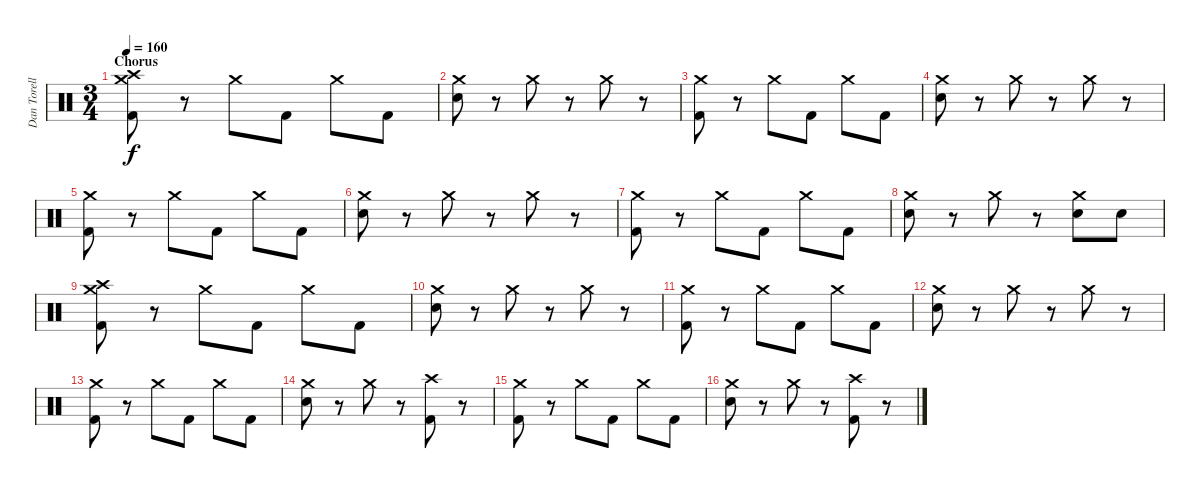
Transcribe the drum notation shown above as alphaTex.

\track ("Dan Torelli - Drums" "Dan Torell") {instrument percussion}
\staff {score}
\articulation defaults
\ts (3 4)
\section ("" "Chorus")
\tempo 160
\clef neutral
\ks c
("Crash high (hit)" "Crash medium (hit)" "Kick (hit) 2").8{dy f} r.8 "Crash medium (hit)".8 "Kick (hit) 2".8 "Crash medium (hit)".8 "Kick (hit) 2".8 |
("Crash medium (hit)" "Electric Snare (hit)").8 r.8 "Crash medium (hit)".8 r.8 "Crash medium (hit)".8 r.8 |
("Crash medium (hit)" "Kick (hit) 2").8 r.8 "Crash medium (hit)".8 "Kick (hit) 2".8 "Crash medium (hit)".8 "Kick (hit) 2".8 |
("Crash medium (hit)" "Electric Snare (hit)").8 r.8 "Crash medium (hit)".8 r.8 "Crash medium (hit)".8 r.8 |
("Crash medium (hit)" "Kick (hit) 2").8 r.8 "Crash medium (hit)".8 "Kick (hit) 2".8 "Crash medium (hit)".8 "Kick (hit) 2".8 |
("Crash medium (hit)" "Electric Snare (hit)").8 r.8 "Crash medium (hit)".8 r.8 "Crash medium (hit)".8 r.8 |
("Crash medium (hit)" "Kick (hit) 2").8 r.8 "Crash medium (hit)".8 "Kick (hit) 2".8 "Crash medium (hit)".8 "Kick (hit) 2".8 |
("Crash medium (hit)" "Electric Snare (hit)").8 r.8 "Crash medium (hit)".8 r.8 ("Crash medium (hit)" "Electric Snare (hit)").8 "Electric Snare (hit)".8 |
("Crash medium (hit)" "Crash high (hit)" "Kick (hit) 2").8 r.8 "Crash medium (hit)".8 "Kick (hit) 2".8 "Crash medium (hit)".8 "Kick (hit) 2".8 |
("Crash medium (hit)" "Electric Snare (hit)").8 r.8 "Crash medium (hit)".8 r.8 "Crash medium (hit)".8 r.8 |
("Crash medium (hit)" "Kick (hit) 2").8 r.8 "Crash medium (hit)".8 "Kick (hit) 2".8 "Crash medium (hit)".8 "Kick (hit) 2".8 |
("Crash medium (hit)" "Electric Snare (hit)").8 r.8 "Crash medium (hit)".8 r.8 "Crash medium (hit)".8 r.8 |
("Crash medium (hit)" "Kick (hit) 2").8 r.8 "Crash medium (hit)".8 "Kick (hit) 2".8 "Crash medium (hit)".8 "Kick (hit) 2".8 |
("Crash medium (hit)" "Electric Snare (hit)").8 r.8 "Crash medium (hit)".8 r.8 ("Crash high (hit)" "Kick (hit) 2").8 r.8 |
("Crash medium (hit)" "Kick (hit) 2").8 r.8 "Crash medium (hit)".8 "Kick (hit) 2".8 "Crash medium (hit)".8 "Kick (hit) 2".8 |
("Crash medium (hit)" "Electric Snare (hit)").8 r.8 "Crash medium (hit)".8 r.8 ("Crash high (hit)" "Kick (hit) 2").8 r.8
